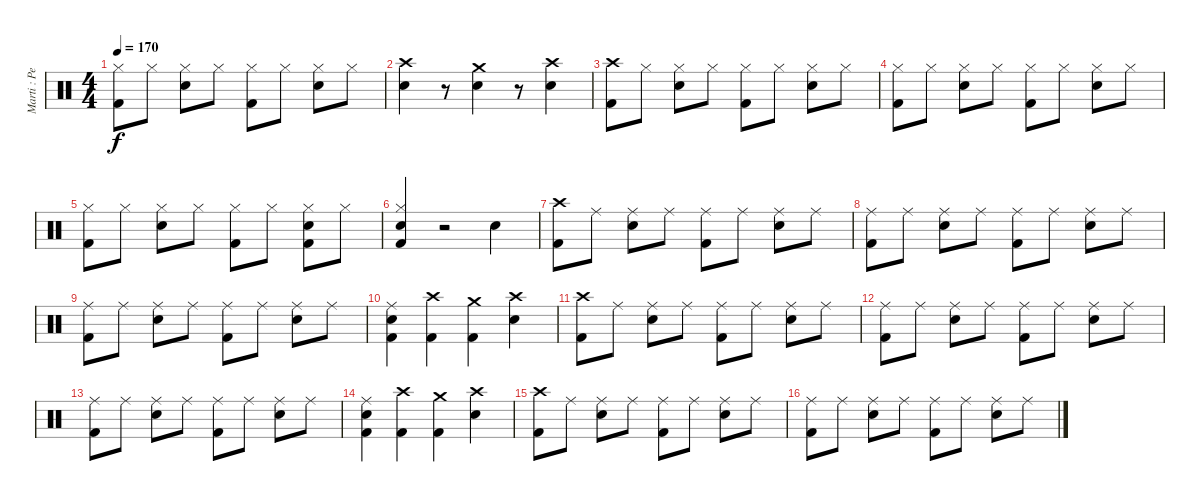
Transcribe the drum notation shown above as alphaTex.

\track ("Marti : Percussion" "Marti : Pe") {instrument percussion}
\staff {score}
\articulation defaults
\ts (4 4)
\tempo 170
\clef neutral
\ks c
("Kick (hit) 2" "Hi-Hat (closed)").8{dy f} "Hi-Hat (closed)".8 ("Electric Snare (hit)" "Hi-Hat (closed)").8 "Hi-Hat (closed)".8 ("Kick (hit) 2" "Hi-Hat (closed)").8 "Hi-Hat (closed)".8 ("Electric Snare (hit)" "Hi-Hat (closed)").8 "Hi-Hat (closed)".8 |
("Electric Snare (hit)" "Crash high (hit)").4 r.8 ("Electric Snare (hit)" "Crash medium (hit)").4 r.8 ("Electric Snare (hit)" "Crash high (hit)").4 |
("Kick (hit) 2" "Crash high (hit)").8 "Hi-Hat (closed)".8 ("Electric Snare (hit)" "Hi-Hat (closed)").8 "Hi-Hat (closed)".8 ("Kick (hit) 2" "Hi-Hat (closed)").8 "Hi-Hat (closed)".8 ("Electric Snare (hit)" "Hi-Hat (closed)").8 "Hi-Hat (closed)".8 |
("Kick (hit) 2" "Hi-Hat (closed)").8 "Hi-Hat (closed)".8 ("Electric Snare (hit)" "Hi-Hat (closed)").8 "Hi-Hat (closed)".8 ("Kick (hit) 2" "Hi-Hat (closed)").8 "Hi-Hat (closed)".8 ("Electric Snare (hit)" "Hi-Hat (closed)").8 "Hi-Hat (closed)".8 |
("Kick (hit) 2" "Hi-Hat (closed)").8 "Hi-Hat (closed)".8 ("Electric Snare (hit)" "Hi-Hat (closed)").8 "Hi-Hat (closed)".8 ("Kick (hit) 2" "Hi-Hat (closed)").8 "Hi-Hat (closed)".8 ("Kick (hit) 2" "Electric Snare (hit)" "Hi-Hat (closed)").8 "Hi-Hat (closed)".8 |
("Kick (hit) 2" "Electric Snare (hit)" "Hi-Hat (closed)").4 r.2 "Electric Snare (hit)".4 |
("Kick (hit) 2" "Crash high (hit)").8 "Ride (middle)".8 ("Electric Snare (hit)" "Ride (middle)").8 "Ride (middle)".8 ("Kick (hit) 2" "Ride (middle)").8 "Ride (middle)".8 ("Electric Snare (hit)" "Ride (middle)").8 "Ride (middle)".8 |
("Kick (hit) 2" "Ride (middle)").8 "Ride (middle)".8 ("Electric Snare (hit)" "Ride (middle)").8 "Ride (middle)".8 ("Kick (hit) 2" "Ride (middle)").8 "Ride (middle)".8 ("Electric Snare (hit)" "Ride (middle)").8 "Ride (middle)".8 |
("Kick (hit) 2" "Ride (middle)").8 "Ride (middle)".8 ("Electric Snare (hit)" "Ride (middle)").8 "Ride (middle)".8 ("Kick (hit) 2" "Ride (middle)").8 "Ride (middle)".8 ("Electric Snare (hit)" "Ride (middle)").8 "Ride (middle)".8 |
("Kick (hit) 2" "Electric Snare (hit)" "Ride (middle)").4 ("Kick (hit) 2" "Crash high (hit)").4 ("Kick (hit) 2" "Crash medium (hit)").4 ("Electric Snare (hit)" "Crash high (hit)").4 |
("Kick (hit) 2" "Crash high (hit)").8 "Ride (middle)".8 ("Electric Snare (hit)" "Ride (middle)").8 "Ride (middle)".8 ("Kick (hit) 2" "Ride (middle)").8 "Ride (middle)".8 ("Electric Snare (hit)" "Ride (middle)").8 "Ride (middle)".8 |
("Kick (hit) 2" "Ride (middle)").8 "Ride (middle)".8 ("Electric Snare (hit)" "Ride (middle)").8 "Ride (middle)".8 ("Kick (hit) 2" "Ride (middle)").8 "Ride (middle)".8 ("Electric Snare (hit)" "Ride (middle)").8 "Ride (middle)".8 |
("Kick (hit) 2" "Ride (middle)").8 "Ride (middle)".8 ("Electric Snare (hit)" "Ride (middle)").8 "Ride (middle)".8 ("Kick (hit) 2" "Ride (middle)").8 "Ride (middle)".8 ("Electric Snare (hit)" "Ride (middle)").8 "Ride (middle)".8 |
("Kick (hit) 2" "Electric Snare (hit)" "Ride (middle)").4 ("Kick (hit) 2" "Crash high (hit)").4 ("Kick (hit) 2" "Crash medium (hit)").4 ("Electric Snare (hit)" "Crash high (hit)").4 |
("Kick (hit) 2" "Crash high (hit)").8 "Ride (middle)".8 ("Electric Snare (hit)" "Ride (middle)").8 "Ride (middle)".8 ("Kick (hit) 2" "Ride (middle)").8 "Ride (middle)".8 ("Electric Snare (hit)" "Ride (middle)").8 "Ride (middle)".8 |
("Kick (hit) 2" "Ride (middle)").8 "Ride (middle)".8 ("Electric Snare (hit)" "Ride (middle)").8 "Ride (middle)".8 ("Kick (hit) 2" "Ride (middle)").8 "Ride (middle)".8 ("Electric Snare (hit)" "Ride (middle)").8 "Ride (middle)".8
